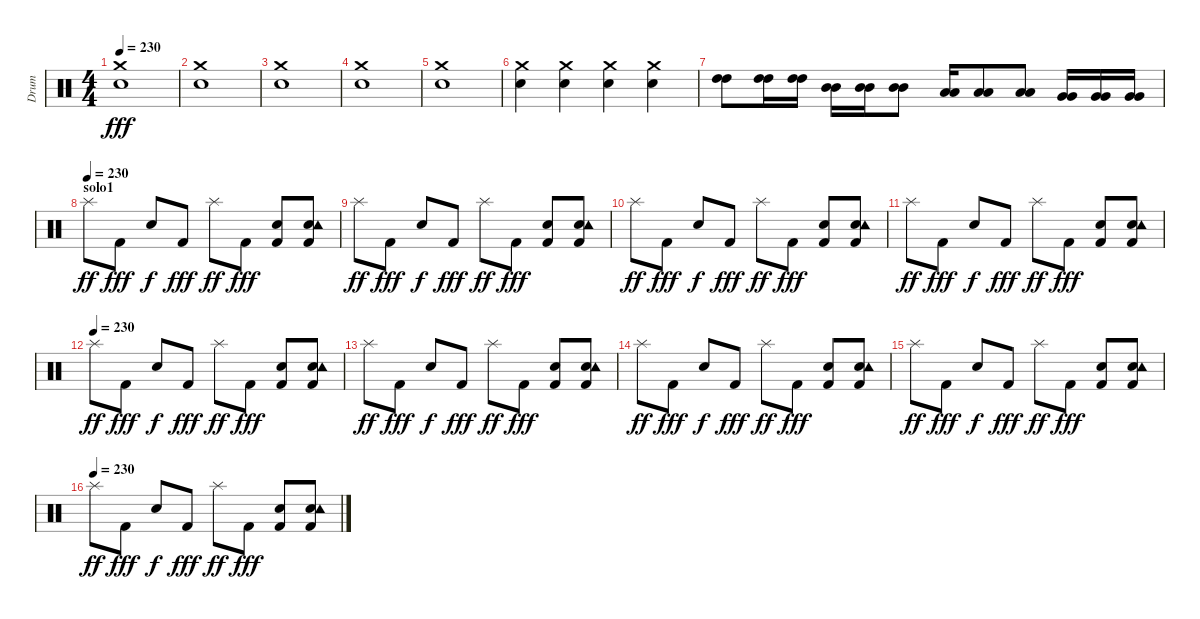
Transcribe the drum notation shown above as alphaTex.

\track ("Drum" "Drum") {instrument percussion}
\staff {score}
\articulation defaults
\ts (4 4)
\tempo 230
\clef neutral
\ks c
("Crash medium (hit)" "Electric Snare (hit)").1{dy fff} |
("Crash medium (hit)" "Electric Snare (hit)").1 |
("Crash medium (hit)" "Electric Snare (hit)").1 |
("Crash medium (hit)" "Electric Snare (hit)").1 |
("Crash medium (hit)" "Electric Snare (hit)").1 |
("Electric Snare (hit)" "Crash medium (hit)").4 ("Electric Snare (hit)" "Crash medium (hit)").4 ("Electric Snare (hit)" "Crash medium (hit)").4 ("Electric Snare (hit)" "Crash medium (hit)").4 |
("High Tom (hit)" "High Tom (hit)").8 ("High Tom (hit)" "High Tom (hit)").16 ("High Tom (hit)" "High Tom (hit)").16 ("Mid Tom (hit)" "Mid Tom (hit)").16 ("Mid Tom (hit)" "Mid Tom (hit)").16 ("Mid Tom (hit)" "Mid Tom (hit)").8 ("Low Tom (hit)" "Low Tom (hit)").16 ("Low Tom (hit)" "Low Tom (hit)").8 ("Low Tom (hit)" "Low Tom (hit)").8 ("Very Low Tom (hit)" "Very Low Tom (hit)").16 ("Very Low Tom (hit)" "Very Low Tom (hit)").16 ("Very Low Tom (hit)" "Very Low Tom (hit)").16 |
\section ("" "solo1")
\tempo (230)
"Splash (hit)".8{dy ff} "Kick (hit) 2".8{dy fff} "Electric Snare (hit)".8{dy f} "Kick (hit) 2".8{dy fff} "Splash (hit)".8{dy ff} "Kick (hit) 2".8{dy fff} ("Electric Snare (hit)" "Kick (hit) 2").8 ("Electric Snare (hit)" "Tambourine (hit)" "Kick (hit) 2").8 |
"Splash (hit)".8{dy ff} "Kick (hit) 2".8{dy fff} "Electric Snare (hit)".8{dy f} "Kick (hit) 2".8{dy fff} "Splash (hit)".8{dy ff} "Kick (hit) 2".8{dy fff} ("Electric Snare (hit)" "Kick (hit) 2").8 ("Electric Snare (hit)" "Tambourine (hit)" "Kick (hit) 2").8 |
"Splash (hit)".8{dy ff} "Kick (hit) 2".8{dy fff} "Electric Snare (hit)".8{dy f} "Kick (hit) 2".8{dy fff} "Splash (hit)".8{dy ff} "Kick (hit) 2".8{dy fff} ("Electric Snare (hit)" "Kick (hit) 2").8 ("Electric Snare (hit)" "Tambourine (hit)" "Kick (hit) 2").8 |
"Splash (hit)".8{dy ff} "Kick (hit) 2".8{dy fff} "Electric Snare (hit)".8{dy f} "Kick (hit) 2".8{dy fff} "Splash (hit)".8{dy ff} "Kick (hit) 2".8{dy fff} ("Electric Snare (hit)" "Kick (hit) 2").8 ("Electric Snare (hit)" "Tambourine (hit)" "Kick (hit) 2").8 |
\tempo (230)
"Splash (hit)".8{dy ff} "Kick (hit) 2".8{dy fff} "Electric Snare (hit)".8{dy f} "Kick (hit) 2".8{dy fff} "Splash (hit)".8{dy ff} "Kick (hit) 2".8{dy fff} ("Electric Snare (hit)" "Kick (hit) 2").8 ("Electric Snare (hit)" "Tambourine (hit)" "Kick (hit) 2").8 |
"Splash (hit)".8{dy ff} "Kick (hit) 2".8{dy fff} "Electric Snare (hit)".8{dy f} "Kick (hit) 2".8{dy fff} "Splash (hit)".8{dy ff} "Kick (hit) 2".8{dy fff} ("Electric Snare (hit)" "Kick (hit) 2").8 ("Electric Snare (hit)" "Tambourine (hit)" "Kick (hit) 2").8 |
"Splash (hit)".8{dy ff} "Kick (hit) 2".8{dy fff} "Electric Snare (hit)".8{dy f} "Kick (hit) 2".8{dy fff} "Splash (hit)".8{dy ff} "Kick (hit) 2".8{dy fff} ("Electric Snare (hit)" "Kick (hit) 2").8 ("Electric Snare (hit)" "Tambourine (hit)" "Kick (hit) 2").8 |
"Splash (hit)".8{dy ff} "Kick (hit) 2".8{dy fff} "Electric Snare (hit)".8{dy f} "Kick (hit) 2".8{dy fff} "Splash (hit)".8{dy ff} "Kick (hit) 2".8{dy fff} ("Electric Snare (hit)" "Kick (hit) 2").8 ("Electric Snare (hit)" "Tambourine (hit)" "Kick (hit) 2").8 |
\tempo (230)
"Splash (hit)".8{dy ff} "Kick (hit) 2".8{dy fff} "Electric Snare (hit)".8{dy f} "Kick (hit) 2".8{dy fff} "Splash (hit)".8{dy ff} "Kick (hit) 2".8{dy fff} ("Electric Snare (hit)" "Kick (hit) 2").8 ("Electric Snare (hit)" "Tambourine (hit)" "Kick (hit) 2").8
